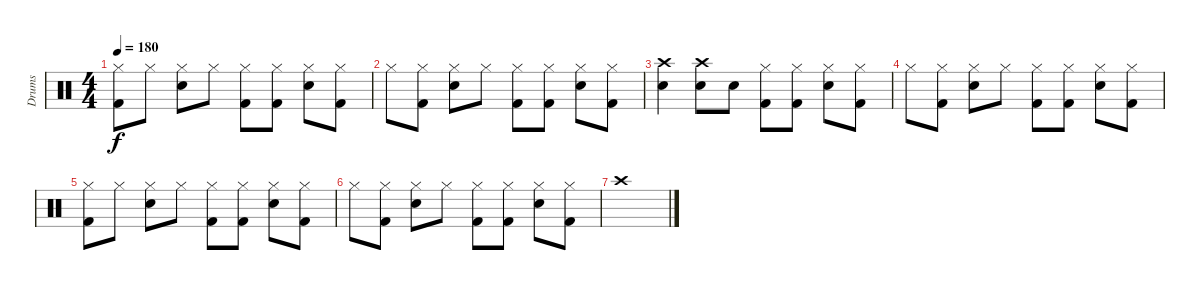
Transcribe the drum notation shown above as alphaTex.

\track ("Drums" "Drums") {instrument percussion}
\staff {score}
\articulation defaults
\ts (4 4)
\tempo 180
\clef neutral
\ks c
("Hi-Hat (closed)" "Kick (hit) 2").8{dy f} "Hi-Hat (closed)".8 ("Hi-Hat (closed)" "Snare (hit) 2").8 "Hi-Hat (closed)".8 ("Hi-Hat (closed)" "Kick (hit) 2").8 ("Hi-Hat (closed)" "Kick (hit) 2").8 ("Hi-Hat (closed)" "Snare (hit) 2").8 ("Hi-Hat (closed)" "Kick (hit) 2").8 |
"Hi-Hat (closed)".8 ("Hi-Hat (closed)" "Kick (hit) 2").8 ("Hi-Hat (closed)" "Snare (hit) 2").8 "Hi-Hat (closed)".8 ("Hi-Hat (closed)" "Kick (hit) 2").8 ("Hi-Hat (closed)" "Kick (hit) 2").8 ("Hi-Hat (closed)" "Snare (hit) 2").8 ("Hi-Hat (closed)" "Kick (hit) 2").8 |
("Electric Snare (hit)" "Crash high (hit)").4 ("Electric Snare (hit)" "Crash high (hit)").8 "Snare (hit) 2".8 ("Hi-Hat (closed)" "Kick (hit) 2").8 ("Hi-Hat (closed)" "Kick (hit) 2").8 ("Hi-Hat (closed)" "Snare (hit) 2").8 ("Hi-Hat (closed)" "Kick (hit) 2").8 |
"Hi-Hat (closed)".8 ("Hi-Hat (closed)" "Kick (hit) 2").8 ("Hi-Hat (closed)" "Snare (hit) 2").8 "Hi-Hat (closed)".8 ("Hi-Hat (closed)" "Kick (hit) 2").8 ("Hi-Hat (closed)" "Kick (hit) 2").8 ("Hi-Hat (closed)" "Snare (hit) 2").8 ("Hi-Hat (closed)" "Kick (hit) 2").8 |
("Hi-Hat (closed)" "Kick (hit) 2").8 "Hi-Hat (closed)".8 ("Hi-Hat (closed)" "Snare (hit) 2").8 "Hi-Hat (closed)".8 ("Hi-Hat (closed)" "Kick (hit) 2").8 ("Hi-Hat (closed)" "Kick (hit) 2").8 ("Hi-Hat (closed)" "Snare (hit) 2").8 ("Hi-Hat (closed)" "Kick (hit) 2").8 |
"Hi-Hat (closed)".8 ("Hi-Hat (closed)" "Kick (hit) 2").8 ("Hi-Hat (closed)" "Snare (hit) 2").8 "Hi-Hat (closed)".8 ("Hi-Hat (closed)" "Kick (hit) 2").8 ("Hi-Hat (closed)" "Kick (hit) 2").8 ("Hi-Hat (closed)" "Snare (hit) 2").8 ("Hi-Hat (closed)" "Kick (hit) 2").8 |
"Crash high (hit)".1
